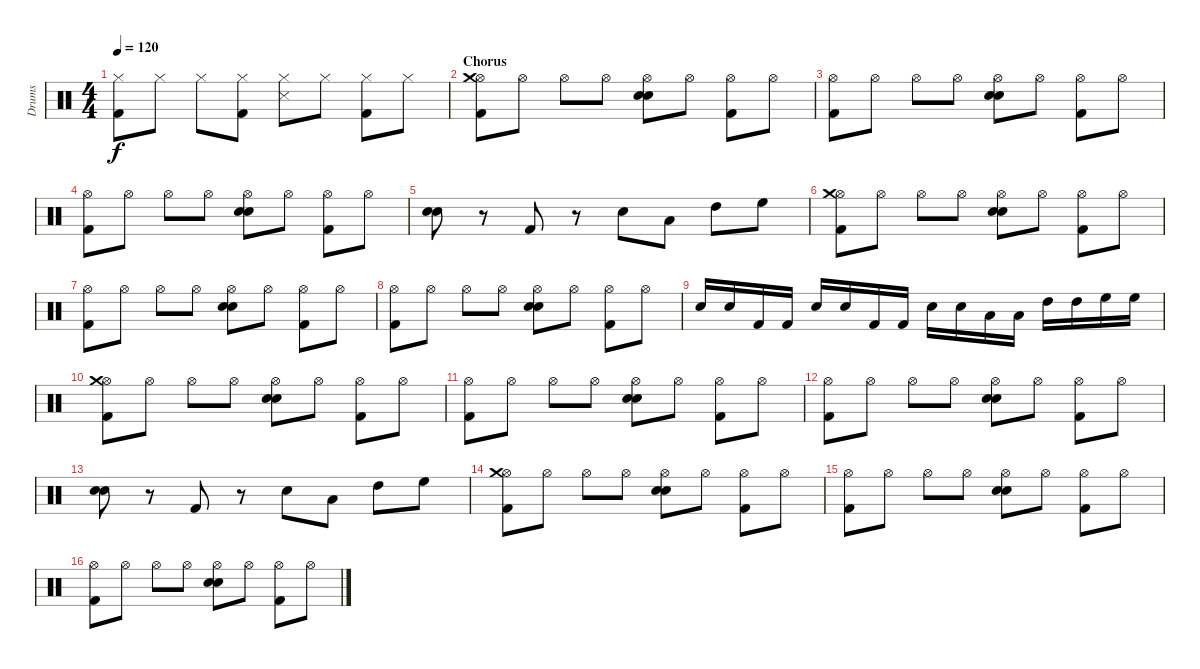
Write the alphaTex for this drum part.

\track ("Drums" "Drums") {instrument percussion}
\staff {score}
\articulation defaults
\ts (4 4)
\tempo 120
\clef neutral
\ks c
("Hi-Hat (closed)" "Kick (hit) 2").8{dy f} "Hi-Hat (closed)".8 "Hi-Hat (closed)".8 ("Hi-Hat (closed)" "Kick (hit) 2").8 ("Hi-Hat (closed)" "Snare (side stick) 3").8 "Hi-Hat (closed)".8 ("Hi-Hat (closed)" "Kick (hit) 2").8 "Hi-Hat (closed)".8 |
\section ("" "Chorus")
("Hi-Hat (open)" "Kick (hit) 2" "Crash medium (hit)").8 "Hi-Hat (open)".8 "Hi-Hat (open)".8 "Hi-Hat (open)".8 ("Hi-Hat (open)" "Snare (hit) 2" "Electric Snare (hit)").8 "Hi-Hat (open)".8 ("Hi-Hat (open)" "Kick (hit) 2").8 "Hi-Hat (open)".8 |
("Hi-Hat (open)" "Kick (hit) 2").8 "Hi-Hat (open)".8 "Hi-Hat (open)".8 "Hi-Hat (open)".8 ("Hi-Hat (open)" "Snare (hit) 2" "Electric Snare (hit)").8 "Hi-Hat (open)".8 ("Hi-Hat (open)" "Kick (hit) 2").8 "Hi-Hat (open)".8 |
("Hi-Hat (open)" "Kick (hit) 2").8 "Hi-Hat (open)".8 "Hi-Hat (open)".8 "Hi-Hat (open)".8 ("Hi-Hat (open)" "Snare (hit) 2" "Electric Snare (hit)").8 "Hi-Hat (open)".8 ("Hi-Hat (open)" "Kick (hit) 2").8 "Hi-Hat (open)".8 |
("Snare (hit) 2" "Electric Snare (hit)").8 r.8 "Kick (hit) 2".8 r.8 "Snare (hit) 2".8 "Low Tom (hit)".8 "High Tom (hit)".8 "High Floor Tom (hit)".8 |
("Hi-Hat (open)" "Kick (hit) 2" "Crash medium (hit)").8 "Hi-Hat (open)".8 "Hi-Hat (open)".8 "Hi-Hat (open)".8 ("Hi-Hat (open)" "Snare (hit) 2" "Electric Snare (hit)").8 "Hi-Hat (open)".8 ("Hi-Hat (open)" "Kick (hit) 2").8 "Hi-Hat (open)".8 |
("Hi-Hat (open)" "Kick (hit) 2").8 "Hi-Hat (open)".8 "Hi-Hat (open)".8 "Hi-Hat (open)".8 ("Hi-Hat (open)" "Snare (hit) 2" "Electric Snare (hit)").8 "Hi-Hat (open)".8 ("Hi-Hat (open)" "Kick (hit) 2").8 "Hi-Hat (open)".8 |
("Hi-Hat (open)" "Kick (hit) 2").8 "Hi-Hat (open)".8 "Hi-Hat (open)".8 "Hi-Hat (open)".8 ("Hi-Hat (open)" "Snare (hit) 2" "Electric Snare (hit)").8 "Hi-Hat (open)".8 ("Hi-Hat (open)" "Kick (hit) 2").8 "Hi-Hat (open)".8 |
"Snare (hit) 2".16 "Snare (hit) 2".16 "Kick (hit) 2".16 "Kick (hit) 2".16 "Snare (hit) 2".16 "Snare (hit) 2".16 "Kick (hit) 2".16 "Kick (hit) 2".16 "Snare (hit) 2".16 "Snare (hit) 2".16 "Low Tom (hit)".16 "Low Tom (hit)".16 "High Tom (hit)".16 "High Tom (hit)".16 "High Floor Tom (hit)".16 "High Floor Tom (hit)".16 |
("Hi-Hat (open)" "Kick (hit) 2" "Crash medium (hit)").8 "Hi-Hat (open)".8 "Hi-Hat (open)".8 "Hi-Hat (open)".8 ("Hi-Hat (open)" "Snare (hit) 2" "Electric Snare (hit)").8 "Hi-Hat (open)".8 ("Hi-Hat (open)" "Kick (hit) 2").8 "Hi-Hat (open)".8 |
("Hi-Hat (open)" "Kick (hit) 2").8 "Hi-Hat (open)".8 "Hi-Hat (open)".8 "Hi-Hat (open)".8 ("Hi-Hat (open)" "Snare (hit) 2" "Electric Snare (hit)").8 "Hi-Hat (open)".8 ("Hi-Hat (open)" "Kick (hit) 2").8 "Hi-Hat (open)".8 |
("Hi-Hat (open)" "Kick (hit) 2").8 "Hi-Hat (open)".8 "Hi-Hat (open)".8 "Hi-Hat (open)".8 ("Hi-Hat (open)" "Snare (hit) 2" "Electric Snare (hit)").8 "Hi-Hat (open)".8 ("Hi-Hat (open)" "Kick (hit) 2").8 "Hi-Hat (open)".8 |
("Snare (hit) 2" "Electric Snare (hit)").8 r.8 "Kick (hit) 2".8 r.8 "Snare (hit) 2".8 "Low Tom (hit)".8 "High Tom (hit)".8 "High Floor Tom (hit)".8 |
("Hi-Hat (open)" "Kick (hit) 2" "Crash medium (hit)").8 "Hi-Hat (open)".8 "Hi-Hat (open)".8 "Hi-Hat (open)".8 ("Hi-Hat (open)" "Snare (hit) 2" "Electric Snare (hit)").8 "Hi-Hat (open)".8 ("Hi-Hat (open)" "Kick (hit) 2").8 "Hi-Hat (open)".8 |
("Hi-Hat (open)" "Kick (hit) 2").8 "Hi-Hat (open)".8 "Hi-Hat (open)".8 "Hi-Hat (open)".8 ("Hi-Hat (open)" "Snare (hit) 2" "Electric Snare (hit)").8 "Hi-Hat (open)".8 ("Hi-Hat (open)" "Kick (hit) 2").8 "Hi-Hat (open)".8 |
("Hi-Hat (open)" "Kick (hit) 2").8 "Hi-Hat (open)".8 "Hi-Hat (open)".8 "Hi-Hat (open)".8 ("Hi-Hat (open)" "Snare (hit) 2" "Electric Snare (hit)").8 "Hi-Hat (open)".8 ("Hi-Hat (open)" "Kick (hit) 2").8 "Hi-Hat (open)".8
